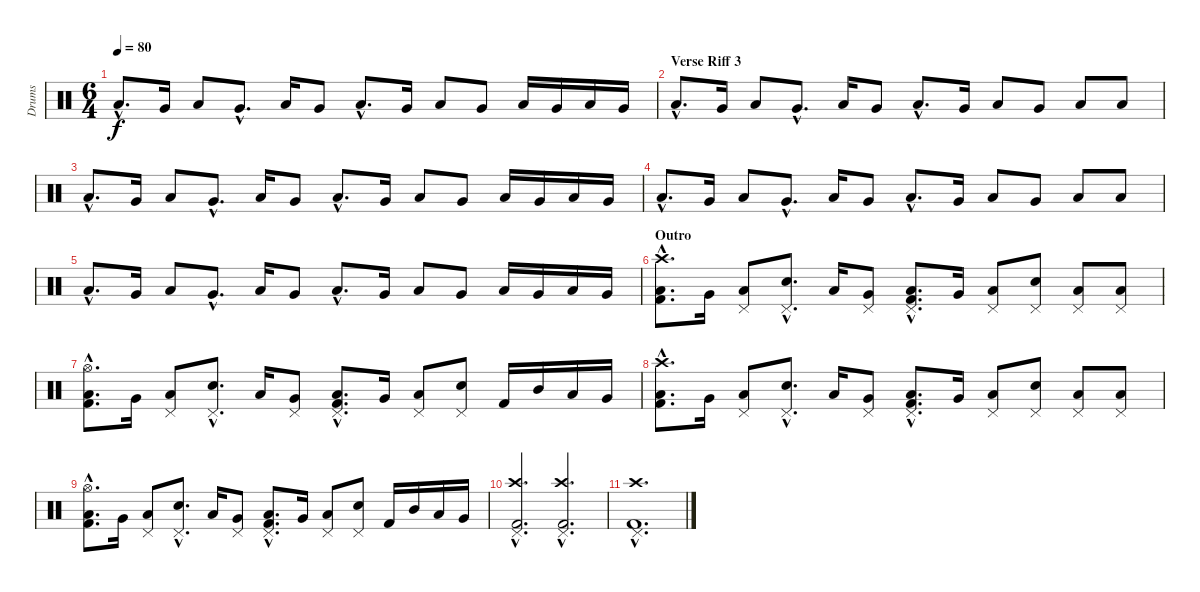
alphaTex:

\track ("Drums" "Drums") {instrument percussion}
\staff {score}
\articulation defaults
\ts (6 4)
\tempo 80
\clef neutral
\ks c "Low Tom (hit)"{hac}.8{d dy f} "Very Low Tom (hit)".16 "Low Tom (hit)".8 "Very Low Tom (hit)"{hac}.8{d} "Low Tom (hit)".16 "Very Low Tom (hit)".8 "Low Floor Tom (hit)"{hac}.8{d} "Very Low Tom (hit)".16 "Low Floor Tom (hit)".8 "Very Low Tom (hit)".8 "Low Floor Tom (hit)".16 "Very Low Tom (hit)".16 "Low Tom (hit)".16 "Very Low Tom (hit)".16
|
\section ("" "Verse Riff 3")
"Low Tom (hit)"{hac}.8{d} "Very Low Tom (hit)".16 "Low Tom (hit)".8 "Very Low Tom (hit)"{hac}.8{d} "Low Tom (hit)".16 "Very Low Tom (hit)".8 "Low Floor Tom (hit)"{hac}.8{d} "Very Low Tom (hit)".16 "Low Floor Tom (hit)".8 "Very Low Tom (hit)".8 "Low Tom (hit)".8 "Low Floor Tom (hit)".8 |
"Low Tom (hit)"{hac}.8{d} "Very Low Tom (hit)".16 "Low Tom (hit)".8 "Very Low Tom (hit)"{hac}.8{d} "Low Tom (hit)".16 "Very Low Tom (hit)".8 "Low Floor Tom (hit)"{hac}.8{d} "Very Low Tom (hit)".16 "Low Floor Tom (hit)".8 "Very Low Tom (hit)".8 "Low Floor Tom (hit)".16 "Very Low Tom (hit)".16 "Low Tom (hit)".16 "Very Low Tom (hit)".16 |
"Low Tom (hit)"{hac}.8{d} "Very Low Tom (hit)".16 "Low Tom (hit)".8 "Very Low Tom (hit)"{hac}.8{d} "Low Tom (hit)".16 "Very Low Tom (hit)".8 "Low Floor Tom (hit)"{hac}.8{d} "Very Low Tom (hit)".16 "Low Floor Tom (hit)".8 "Very Low Tom (hit)".8 "Low Tom (hit)".8 "Low Floor Tom (hit)".8 |
"Low Tom (hit)"{hac}.8{d} "Very Low Tom (hit)".16 "Low Tom (hit)".8 "Very Low Tom (hit)"{hac}.8{d} "Low Tom (hit)".16 "Very Low Tom (hit)".8 "Low Floor Tom (hit)"{hac}.8{d} "Very Low Tom (hit)".16 "Low Floor Tom (hit)".8 "Very Low Tom (hit)".8 "Low Floor Tom (hit)".16 "Very Low Tom (hit)".16 "Low Tom (hit)".16 "Very Low Tom (hit)".16 |
\section ("" "Outro")
("Kick (hit) 2"{hac} "Low Tom (hit)"{hac} "Crash high (hit)"{hac}).8{d} "Very Low Tom (hit)".16 ("Low Tom (hit)" "Pedal Hi-Hat (hit)").8 ("Snare (hit) 2"{hac} "Pedal Hi-Hat (hit)"{hac}).8{d} "Low Tom (hit)".16 ("Very Low Tom (hit)" "Pedal Hi-Hat (hit)").8 ("Kick (hit) 2"{hac} "Low Floor Tom (hit)"{hac} "Pedal Hi-Hat (hit)"{hac}).8{d} "Very Low Tom (hit)".16 ("Low Floor Tom (hit)" "Pedal Hi-Hat (hit)").8 ("Snare (hit) 2" "Pedal Hi-Hat (hit)").8 ("Low Tom (hit)" "Pedal Hi-Hat (hit)").8 ("Low Floor Tom (hit)" "Pedal Hi-Hat (hit)").8 |
("Kick (hit) 2"{hac} "Low Tom (hit)"{hac} "Hi-Hat (open)"{hac}).8{d} "Very Low Tom (hit)".16 ("Low Tom (hit)" "Pedal Hi-Hat (hit)").8 ("Snare (hit) 2"{hac} "Pedal Hi-Hat (hit)"{hac}).8{d} "Low Tom (hit)".16 ("Very Low Tom (hit)" "Pedal Hi-Hat (hit)").8 ("Kick (hit) 2"{hac} "Low Floor Tom (hit)"{hac} "Pedal Hi-Hat (hit)"{hac}).8{d} "Very Low Tom (hit)".16 ("Low Floor Tom (hit)" "Pedal Hi-Hat (hit)").8 ("Snare (hit) 2" "Pedal Hi-Hat (hit)").8 "Kick (hit) 2".16 "Mid Tom (hit)".16 "Low Tom (hit)".16 "Very Low Tom (hit)".16 |
("Kick (hit) 2"{hac} "Low Tom (hit)"{hac} "Crash high (hit)"{hac}).8{d} "Very Low Tom (hit)".16 ("Low Tom (hit)" "Pedal Hi-Hat (hit)").8 ("Snare (hit) 2"{hac} "Pedal Hi-Hat (hit)"{hac}).8{d} "Low Tom (hit)".16 ("Very Low Tom (hit)" "Pedal Hi-Hat (hit)").8 ("Kick (hit) 2"{hac} "Low Floor Tom (hit)"{hac} "Pedal Hi-Hat (hit)"{hac}).8{d} "Very Low Tom (hit)".16 ("Low Floor Tom (hit)" "Pedal Hi-Hat (hit)").8 ("Snare (hit) 2" "Pedal Hi-Hat (hit)").8 ("Low Tom (hit)" "Pedal Hi-Hat (hit)").8 ("Low Floor Tom (hit)" "Pedal Hi-Hat (hit)").8 |
("Kick (hit) 2"{hac} "Low Tom (hit)"{hac} "Hi-Hat (open)"{hac}).8{d} "Very Low Tom (hit)".16 ("Low Tom (hit)" "Pedal Hi-Hat (hit)").8 ("Snare (hit) 2"{hac} "Pedal Hi-Hat (hit)"{hac}).8{d} "Low Tom (hit)".16 ("Very Low Tom (hit)" "Pedal Hi-Hat (hit)").8 ("Kick (hit) 2"{hac} "Low Floor Tom (hit)"{hac} "Pedal Hi-Hat (hit)"{hac}).8{d} "Very Low Tom (hit)".16 ("Low Floor Tom (hit)" "Pedal Hi-Hat (hit)").8 ("Snare (hit) 2" "Pedal Hi-Hat (hit)").8 "Kick (hit) 2".16 "Mid Tom (hit)".16 "Low Tom (hit)".16 "Very Low Tom (hit)".16 |
("Kick (hit) 2"{hac} "Pedal Hi-Hat (hit)"{hac} "Crash high (hit)"{hac}).2{d} ("Kick (hit) 2"{hac} "Pedal Hi-Hat (hit)"{hac} "Crash high (hit)"{hac}).2{d} |
("Kick (hit) 2"{hac} "Pedal Hi-Hat (hit)"{hac} "Crash high (hit)"{hac}).1{d}
